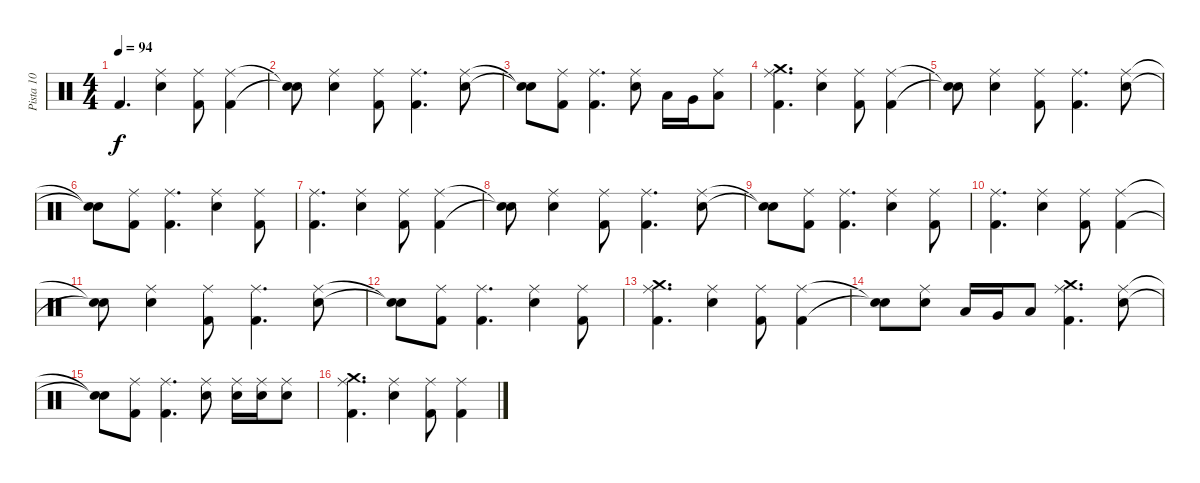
\track ("Pista 10" "Pista 10") {instrument percussion}
\staff {score}
\articulation defaults
\ts (4 4)
\tempo 94
\clef neutral
\ks c "Kick (hit) 2".4{d dy f}
("Ride (middle)" "Snare (hit) 2").4 ("Ride (middle)" "Kick (hit) 2").8 ("Ride (middle)" "Kick (hit) 2").4 |
("Snare (hit)"{t} "Snare (hit)"{t}).8 ("Ride (middle)" "Snare (hit) 2").4 ("Ride (middle)" "Kick (hit) 2").8 ("Ride (middle)" "Kick (hit) 2").4{d} ("Ride (middle)" "Snare (hit) 2").8 |
("Snare (hit)"{t} "Snare (hit)"{t}).8 ("Ride (middle)" "Kick (hit) 2").8 ("Ride (middle)" "Kick (hit) 2").4{d} ("Ride (middle)" "Snare (hit) 2").8 "Low Tom (hit)".16 "Very Low Tom (hit)".16 ("Low Floor Tom (hit)" "Ride (middle)").8 |
("Crash medium (hit)" "Ride (middle)" "Kick (hit) 2").4{d} ("Ride (middle)" "Snare (hit) 2").4 ("Ride (middle)" "Kick (hit) 2").8 ("Ride (middle)" "Kick (hit) 2").4 |
("Snare (hit)"{t} "Snare (hit)"{t}).8 ("Ride (middle)" "Snare (hit) 2").4 ("Ride (middle)" "Kick (hit) 2").8 ("Ride (middle)" "Kick (hit) 2").4{d} ("Ride (middle)" "Snare (hit) 2").8 |
("Snare (hit)"{t} "Snare (hit)"{t}).8 ("Ride (middle)" "Kick (hit) 2").8 ("Ride (middle)" "Kick (hit) 2").4{d} ("Ride (middle)" "Snare (hit) 2").4 ("Ride (middle)" "Kick (hit) 2").8 |
("Ride (middle)" "Kick (hit) 2").4{d} ("Ride (middle)" "Snare (hit) 2").4 ("Ride (middle)" "Kick (hit) 2").8 ("Ride (middle)" "Kick (hit) 2").4 |
("Snare (hit)"{t} "Snare (hit)"{t}).8 ("Ride (middle)" "Snare (hit) 2").4 ("Ride (middle)" "Kick (hit) 2").8 ("Ride (middle)" "Kick (hit) 2").4{d} ("Ride (middle)" "Snare (hit) 2").8 |
("Snare (hit)"{t} "Snare (hit)"{t}).8 ("Ride (middle)" "Kick (hit) 2").8 ("Ride (middle)" "Kick (hit) 2").4{d} ("Ride (middle)" "Snare (hit) 2").4 ("Ride (middle)" "Kick (hit) 2").8 |
("Ride (middle)" "Kick (hit) 2").4{d} ("Ride (middle)" "Snare (hit) 2").4 ("Ride (middle)" "Kick (hit) 2").8 ("Ride (middle)" "Kick (hit) 2").4 |
("Snare (hit)"{t} "Snare (hit)"{t}).8 ("Ride (middle)" "Snare (hit) 2").4 ("Ride (middle)" "Kick (hit) 2").8 ("Ride (middle)" "Kick (hit) 2").4{d} ("Ride (middle)" "Snare (hit) 2").8 |
("Snare (hit)"{t} "Snare (hit)"{t}).8 ("Ride (middle)" "Kick (hit) 2").8 ("Ride (middle)" "Kick (hit) 2").4{d} ("Ride (middle)" "Snare (hit) 2").4 ("Ride (middle)" "Kick (hit) 2").8 |
("Crash medium (hit)" "Ride (middle)" "Kick (hit) 2").4{d} ("Ride (middle)" "Snare (hit) 2").4 ("Ride (middle)" "Kick (hit) 2").8 ("Ride (middle)" "Kick (hit) 2").4 |
("Snare (hit)"{t} "Snare (hit)"{t}).8 ("Ride (middle)" "Snare (hit) 2").8 "Low Tom (hit)".16 "Very Low Tom (hit)".16 "Low Floor Tom (hit)".8 ("Crash medium (hit)" "Ride (middle)" "Kick (hit) 2").4{d} ("Ride (middle)" "Snare (hit) 2").8 |
("Snare (hit)"{t} "Snare (hit)"{t}).8 ("Ride (middle)" "Kick (hit) 2").8 ("Ride (middle)" "Kick (hit) 2").4{d} ("Ride (middle)" "Snare (hit) 2").8 ("Ride (middle)" "Snare (hit) 2").16 ("Ride (middle)" "Snare (hit) 2").16 ("Ride (middle)" "Snare (hit) 2").8 |
("Crash medium (hit)" "Ride (middle)" "Kick (hit) 2").4{d} ("Ride (middle)" "Snare (hit) 2").4 ("Ride (middle)" "Kick (hit) 2").8 ("Ride (middle)" "Kick (hit) 2").4
